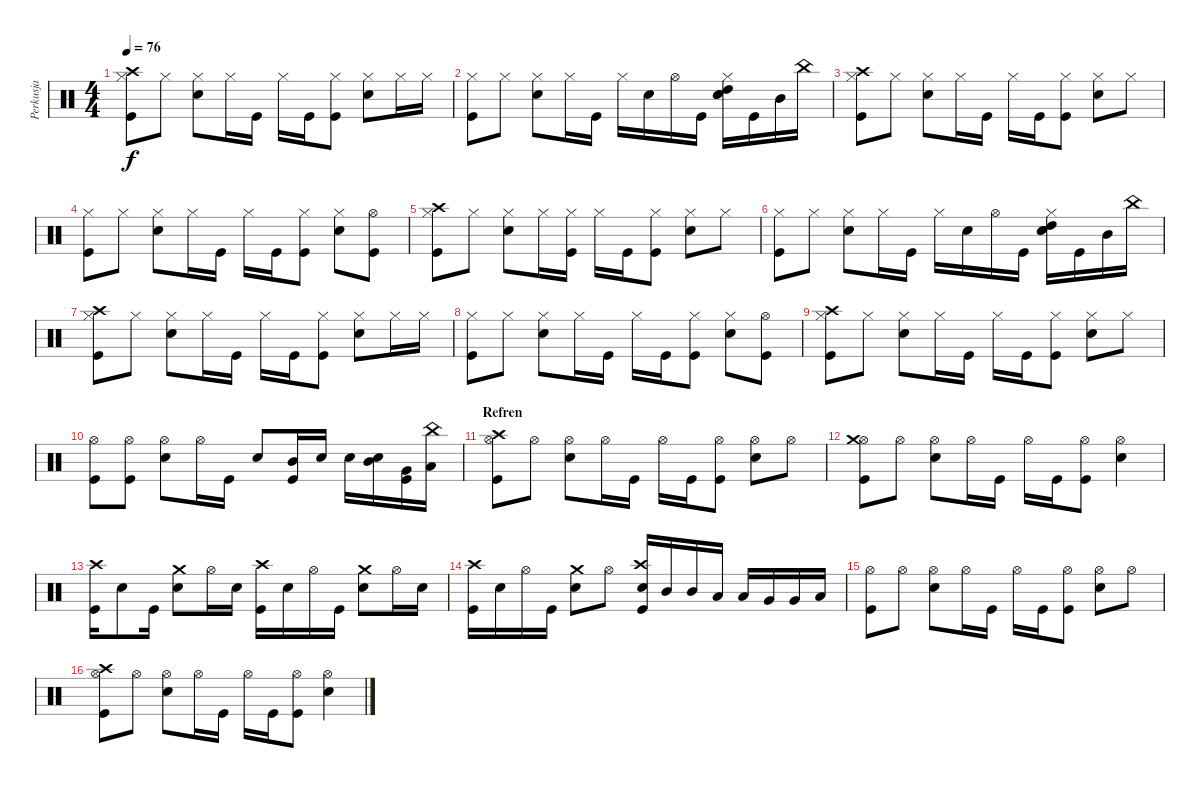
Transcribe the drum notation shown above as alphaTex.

\track ("Perkusja" "Perkusja") {instrument percussion}
\staff {score}
\articulation defaults
\ts (4 4)
\tempo 76
\clef neutral
\ks c
("Kick (hit)" "Hi-Hat (closed)" "Crash high (hit)").8{dy f} "Hi-Hat (closed)".8 ("Snare (hit) 2" "Hi-Hat (closed)").8 "Hi-Hat (closed)".16 "Kick (hit)".16 "Hi-Hat (closed)".16 "Kick (hit)".16 ("Kick (hit)" "Hi-Hat (closed)").8 ("Snare (hit) 2" "Hi-Hat (closed)").8 "Hi-Hat (closed)".16 "Hi-Hat (closed)".16 |
("Kick (hit)" "Hi-Hat (closed)").8 "Hi-Hat (closed)".8 ("Snare (hit) 2" "Hi-Hat (closed)").8 "Hi-Hat (closed)".16 "Kick (hit)".16 "Hi-Hat (closed)".16 "Snare (hit) 2".16 "Hi-Hat (open)".16 "Kick (hit)".16 ("Snare (hit) 2" "Hi-Hat (closed)" "High Tom (hit)" "Snare (hit) 2").16 "Kick (hit)".16 "Mid Tom (hit)".16 "China (hit)".16 |
("Kick (hit)" "Hi-Hat (closed)" "Crash high (hit)").8 "Hi-Hat (closed)".8 ("Snare (hit) 2" "Hi-Hat (closed)").8 "Hi-Hat (closed)".16 "Kick (hit)".16 "Hi-Hat (closed)".16 "Kick (hit)".16 ("Kick (hit)" "Hi-Hat (closed)").8 ("Snare (hit) 2" "Hi-Hat (closed)").8 "Hi-Hat (closed)".8 |
("Kick (hit)" "Hi-Hat (closed)").8 "Hi-Hat (closed)".8 ("Snare (hit) 2" "Hi-Hat (closed)").8 "Hi-Hat (closed)".16 "Kick (hit)".16 "Hi-Hat (closed)".16 "Kick (hit)".16 ("Kick (hit)" "Hi-Hat (closed)").8 ("Snare (hit) 2" "Hi-Hat (closed)").8 ("Kick (hit)" "Hi-Hat (open)").8 |
("Kick (hit)" "Hi-Hat (closed)" "Crash high (hit)").8 "Hi-Hat (closed)".8 ("Snare (hit) 2" "Hi-Hat (closed)").8 "Hi-Hat (closed)".16 ("Kick (hit)" "Hi-Hat (closed)").16 "Hi-Hat (closed)".16 "Kick (hit)".16 ("Kick (hit)" "Hi-Hat (closed)").8 ("Snare (hit) 2" "Hi-Hat (closed)").8 "Hi-Hat (closed)".8 |
("Kick (hit)" "Hi-Hat (closed)").8 "Hi-Hat (closed)".8 ("Snare (hit) 2" "Hi-Hat (closed)").8 "Hi-Hat (closed)".16 "Kick (hit)".16 "Hi-Hat (closed)".16 "Snare (hit) 2".16 "Hi-Hat (open)".16 "Kick (hit)".16 ("Snare (hit) 2" "Hi-Hat (closed)" "High Tom (hit)" "Snare (hit) 2").16 "Kick (hit)".16 "Mid Tom (hit)".16 "China (hit)".16 |
("Kick (hit)" "Hi-Hat (closed)" "Crash high (hit)").8 "Hi-Hat (closed)".8 ("Snare (hit) 2" "Hi-Hat (closed)").8 "Hi-Hat (closed)".16 "Kick (hit)".16 "Hi-Hat (closed)".16 "Kick (hit)".16 ("Kick (hit)" "Hi-Hat (closed)").8 ("Snare (hit) 2" "Hi-Hat (closed)").8 "Hi-Hat (closed)".16 "Hi-Hat (closed)".16 |
("Kick (hit)" "Hi-Hat (closed)").8 "Hi-Hat (closed)".8 ("Snare (hit) 2" "Hi-Hat (closed)").8 "Hi-Hat (closed)".16 "Kick (hit)".16 "Hi-Hat (closed)".16 "Kick (hit)".16 ("Kick (hit)" "Hi-Hat (closed)").8 ("Snare (hit) 2" "Hi-Hat (closed)").8 ("Kick (hit)" "Hi-Hat (open)").8 |
("Kick (hit)" "Hi-Hat (closed)" "Crash high (hit)").8 "Hi-Hat (closed)".8 ("Snare (hit) 2" "Hi-Hat (closed)").8 "Hi-Hat (closed)".16 "Kick (hit)".16 "Hi-Hat (closed)".16 "Kick (hit)".16 ("Kick (hit)" "Hi-Hat (closed)").8 ("Snare (hit) 2" "Hi-Hat (closed)").8 "Hi-Hat (closed)".8 |
("Kick (hit)" "Hi-Hat (open)").8 ("Kick (hit)" "Hi-Hat (open)").8 ("Snare (hit) 2" "Hi-Hat (open)").8 "Hi-Hat (open)".16 "Kick (hit)".16 "Snare (hit) 2".8 ("Kick (hit)" "Mid Tom (hit)").16 "Snare (hit) 2".16 "Snare (hit) 2".16 ("Snare (hit) 2" "Mid Tom (hit)").16 ("Kick (hit)" "Very Low Tom (hit)").16 ("Low Floor Tom (hit)" "China (hit)").16 |
\section ("" "Refren")
("Kick (hit)" "Hi-Hat (open)" "Crash high (hit)").8 "Hi-Hat (open)".8 ("Snare (hit) 2" "Hi-Hat (open)").8 "Hi-Hat (open)".16 "Kick (hit)".16 "Hi-Hat (open)".16 "Kick (hit)".16 ("Kick (hit)" "Hi-Hat (open)").8 ("Snare (hit) 2" "Hi-Hat (open)").8 "Hi-Hat (open)".8 |
("Kick (hit)" "Hi-Hat (open)" "Crash medium (hit)").8 "Hi-Hat (open)".8 ("Snare (hit) 2" "Hi-Hat (open)").8 "Hi-Hat (open)".16 "Kick (hit)".16 "Hi-Hat (open)".16 "Kick (hit)".16 ("Kick (hit)" "Hi-Hat (open)").8 ("Snare (hit) 2" "Hi-Hat (open)").4 |
("Kick (hit)" "Crash high (hit)").16 "Snare (hit) 2".8 "Kick (hit)".16 ("Snare (hit) 2" "Crash medium (hit)").8 "Hi-Hat (open)".16 "Snare (hit) 2".16 ("Kick (hit)" "Crash high (hit)").16 "Snare (hit) 2".16 "Hi-Hat (open)".16 "Kick (hit)".16 ("Snare (hit) 2" "Crash medium (hit)").8 "Hi-Hat (open)".16 "Snare (hit) 2".16 |
("Kick (hit)" "Crash high (hit)").16 "Snare (hit) 2".16 "Hi-Hat (open)".16 "Kick (hit)".16 ("Snare (hit) 2" "Crash medium (hit)").8 "Hi-Hat (open)".8 ("Kick (hit)" "Snare (hit) 2" "Crash high (hit)").16 "Mid Tom (hit)".16 "Mid Tom (hit)".16 "Low Tom (hit)".16 "Low Tom (hit)".16 "Very Low Tom (hit)".16 "Very Low Tom (hit)".16 "Low Floor Tom (hit)".16 |
("Kick (hit)" "Hi-Hat (open)").8 "Hi-Hat (open)".8 ("Snare (hit) 2" "Hi-Hat (open)").8 "Hi-Hat (open)".16 "Kick (hit)".16 "Hi-Hat (open)".16 "Kick (hit)".16 ("Kick (hit)" "Hi-Hat (open)").8 ("Snare (hit) 2" "Hi-Hat (open)").8 "Hi-Hat (open)".8 |
("Kick (hit)" "Hi-Hat (open)" "Crash high (hit)").8 "Hi-Hat (open)".8 ("Snare (hit) 2" "Hi-Hat (open)").8 "Hi-Hat (open)".16 "Kick (hit)".16 "Hi-Hat (open)".16 "Kick (hit)".16 ("Kick (hit)" "Hi-Hat (open)").8 ("Snare (hit) 2" "Hi-Hat (open)").4
